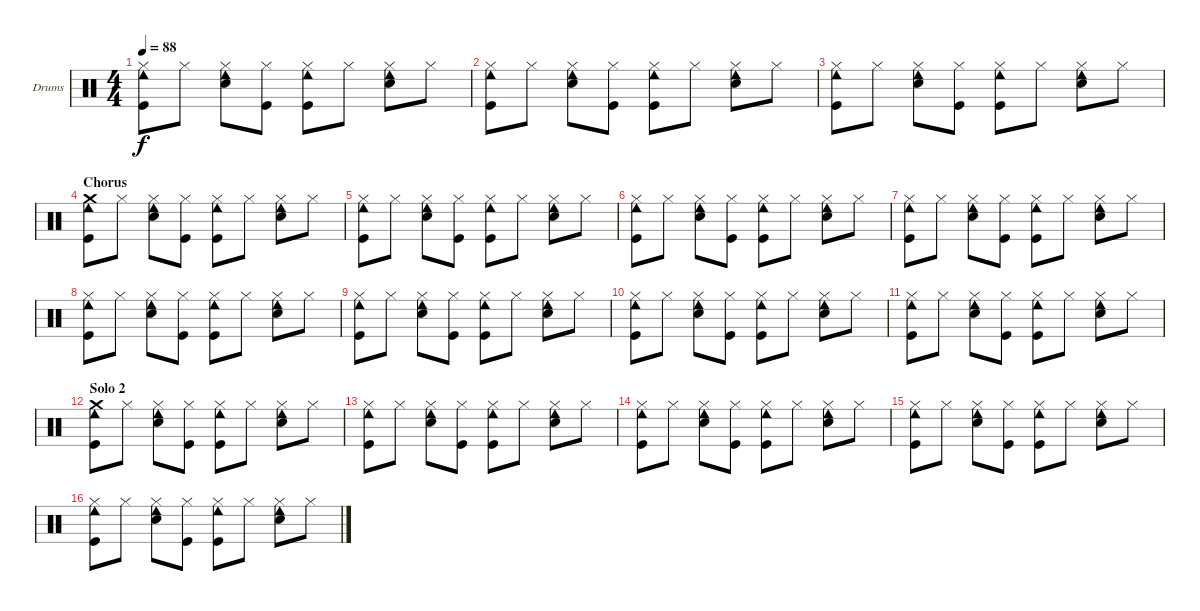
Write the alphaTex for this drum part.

\bracketExtendMode groupsimilarinstruments
\firstSystemTrackNameOrientation horizontal
\otherSystemsTrackNameOrientation horizontal
\track ("Drumkit" "Drums") {instrument percussion}
\staff {score}
\articulation defaults
\ts (4 4)
\tempo 88
\clef neutral
\ks c
("Kick (hit)" "Hi-Hat (closed)" "Cowbell low (hit)").8{dy f} "Hi-Hat (closed)".8 ("Snare (hit) 2" "Hi-Hat (closed)" "Cowbell low (hit)").8 ("Kick (hit)" "Hi-Hat (closed)").8 ("Kick (hit)" "Hi-Hat (closed)" "Cowbell low (hit)").8 "Hi-Hat (closed)".8 ("Snare (hit) 2" "Hi-Hat (closed)" "Cowbell low (hit)").8 "Hi-Hat (closed)".8 |
("Kick (hit)" "Hi-Hat (closed)" "Cowbell low (hit)").8 "Hi-Hat (closed)".8 ("Snare (hit) 2" "Hi-Hat (closed)" "Cowbell low (hit)").8 ("Kick (hit)" "Hi-Hat (closed)").8 ("Kick (hit)" "Hi-Hat (closed)" "Cowbell low (hit)").8 "Hi-Hat (closed)".8 ("Snare (hit) 2" "Hi-Hat (closed)" "Cowbell low (hit)").8 "Hi-Hat (closed)".8 |
("Kick (hit)" "Hi-Hat (closed)" "Cowbell low (hit)").8 "Hi-Hat (closed)".8 ("Snare (hit) 2" "Hi-Hat (closed)" "Cowbell low (hit)").8 ("Kick (hit)" "Hi-Hat (closed)").8 ("Kick (hit)" "Hi-Hat (closed)" "Cowbell low (hit)").8 "Hi-Hat (closed)".8 ("Snare (hit) 2" "Hi-Hat (closed)" "Cowbell low (hit)").8 "Hi-Hat (closed)".8 |
\section ("" "Chorus")
("Kick (hit)" "Cowbell low (hit)" "Crash medium (hit)").8 "Hi-Hat (closed)".8 ("Snare (hit) 2" "Hi-Hat (closed)" "Cowbell low (hit)").8 ("Kick (hit)" "Hi-Hat (closed)").8 ("Kick (hit)" "Cowbell low (hit)" "Hi-Hat (closed)").8 "Hi-Hat (closed)".8 ("Snare (hit) 2" "Hi-Hat (closed)" "Cowbell low (hit)").8 "Hi-Hat (closed)".8 |
("Kick (hit)" "Hi-Hat (closed)" "Cowbell low (hit)").8 "Hi-Hat (closed)".8 ("Snare (hit) 2" "Hi-Hat (closed)" "Cowbell low (hit)").8 ("Kick (hit)" "Hi-Hat (closed)").8 ("Kick (hit)" "Hi-Hat (closed)" "Cowbell low (hit)").8 "Hi-Hat (closed)".8 ("Snare (hit) 2" "Hi-Hat (closed)" "Cowbell low (hit)").8 "Hi-Hat (closed)".8 |
("Kick (hit)" "Hi-Hat (closed)" "Cowbell low (hit)").8 "Hi-Hat (closed)".8 ("Snare (hit) 2" "Hi-Hat (closed)" "Cowbell low (hit)").8 ("Kick (hit)" "Hi-Hat (closed)").8 ("Kick (hit)" "Hi-Hat (closed)" "Cowbell low (hit)").8 "Hi-Hat (closed)".8 ("Snare (hit) 2" "Hi-Hat (closed)" "Cowbell low (hit)").8 "Hi-Hat (closed)".8 |
("Kick (hit)" "Hi-Hat (closed)" "Cowbell low (hit)").8 "Hi-Hat (closed)".8 ("Snare (hit) 2" "Hi-Hat (closed)" "Cowbell low (hit)").8 ("Kick (hit)" "Hi-Hat (closed)").8 ("Kick (hit)" "Hi-Hat (closed)" "Cowbell low (hit)").8 "Hi-Hat (closed)".8 ("Snare (hit) 2" "Hi-Hat (closed)" "Cowbell low (hit)").8 "Hi-Hat (closed)".8 |
("Kick (hit)" "Hi-Hat (closed)" "Cowbell low (hit)").8 "Hi-Hat (closed)".8 ("Snare (hit) 2" "Hi-Hat (closed)" "Cowbell low (hit)").8 ("Kick (hit)" "Hi-Hat (closed)").8 ("Kick (hit)" "Hi-Hat (closed)" "Cowbell low (hit)").8 "Hi-Hat (closed)".8 ("Snare (hit) 2" "Hi-Hat (closed)" "Cowbell low (hit)").8 "Hi-Hat (closed)".8 |
("Kick (hit)" "Hi-Hat (closed)" "Cowbell low (hit)").8 "Hi-Hat (closed)".8 ("Snare (hit) 2" "Hi-Hat (closed)" "Cowbell low (hit)").8 ("Kick (hit)" "Hi-Hat (closed)").8 ("Kick (hit)" "Hi-Hat (closed)" "Cowbell low (hit)").8 "Hi-Hat (closed)".8 ("Snare (hit) 2" "Hi-Hat (closed)" "Cowbell low (hit)").8 "Hi-Hat (closed)".8 |
("Kick (hit)" "Hi-Hat (closed)" "Cowbell low (hit)").8 "Hi-Hat (closed)".8 ("Snare (hit) 2" "Hi-Hat (closed)" "Cowbell low (hit)").8 ("Kick (hit)" "Hi-Hat (closed)").8 ("Kick (hit)" "Hi-Hat (closed)" "Cowbell low (hit)").8 "Hi-Hat (closed)".8 ("Snare (hit) 2" "Hi-Hat (closed)" "Cowbell low (hit)").8 "Hi-Hat (closed)".8 |
("Kick (hit)" "Hi-Hat (closed)" "Cowbell low (hit)").8 "Hi-Hat (closed)".8 ("Snare (hit) 2" "Hi-Hat (closed)" "Cowbell low (hit)").8 ("Kick (hit)" "Hi-Hat (closed)").8 ("Kick (hit)" "Hi-Hat (closed)" "Cowbell low (hit)").8 "Hi-Hat (closed)".8 ("Snare (hit) 2" "Hi-Hat (closed)" "Cowbell low (hit)").8 "Hi-Hat (closed)".8 |
\section ("" "Solo 2")
("Kick (hit)" "Cowbell low (hit)" "Crash medium (hit)").8 "Hi-Hat (closed)".8 ("Snare (hit) 2" "Hi-Hat (closed)" "Cowbell low (hit)").8 ("Kick (hit)" "Hi-Hat (closed)").8 ("Kick (hit)" "Cowbell low (hit)" "Hi-Hat (closed)").8 "Hi-Hat (closed)".8 ("Snare (hit) 2" "Hi-Hat (closed)" "Cowbell low (hit)").8 "Hi-Hat (closed)".8 |
("Kick (hit)" "Hi-Hat (closed)" "Cowbell low (hit)").8 "Hi-Hat (closed)".8 ("Snare (hit) 2" "Hi-Hat (closed)" "Cowbell low (hit)").8 ("Kick (hit)" "Hi-Hat (closed)").8 ("Kick (hit)" "Hi-Hat (closed)" "Cowbell low (hit)").8 "Hi-Hat (closed)".8 ("Snare (hit) 2" "Hi-Hat (closed)" "Cowbell low (hit)").8 "Hi-Hat (closed)".8 |
("Kick (hit)" "Hi-Hat (closed)" "Cowbell low (hit)").8 "Hi-Hat (closed)".8 ("Snare (hit) 2" "Hi-Hat (closed)" "Cowbell low (hit)").8 ("Kick (hit)" "Hi-Hat (closed)").8 ("Kick (hit)" "Hi-Hat (closed)" "Cowbell low (hit)").8 "Hi-Hat (closed)".8 ("Snare (hit) 2" "Hi-Hat (closed)" "Cowbell low (hit)").8 "Hi-Hat (closed)".8 |
("Kick (hit)" "Hi-Hat (closed)" "Cowbell low (hit)").8 "Hi-Hat (closed)".8 ("Snare (hit) 2" "Hi-Hat (closed)" "Cowbell low (hit)").8 ("Kick (hit)" "Hi-Hat (closed)").8 ("Kick (hit)" "Hi-Hat (closed)" "Cowbell low (hit)").8 "Hi-Hat (closed)".8 ("Snare (hit) 2" "Hi-Hat (closed)" "Cowbell low (hit)").8 "Hi-Hat (closed)".8 |
("Kick (hit)" "Hi-Hat (closed)" "Cowbell low (hit)").8 "Hi-Hat (closed)".8 ("Snare (hit) 2" "Hi-Hat (closed)" "Cowbell low (hit)").8 ("Kick (hit)" "Hi-Hat (closed)").8 ("Kick (hit)" "Hi-Hat (closed)" "Cowbell low (hit)").8 "Hi-Hat (closed)".8 ("Snare (hit) 2" "Hi-Hat (closed)" "Cowbell low (hit)").8 "Hi-Hat (closed)".8
